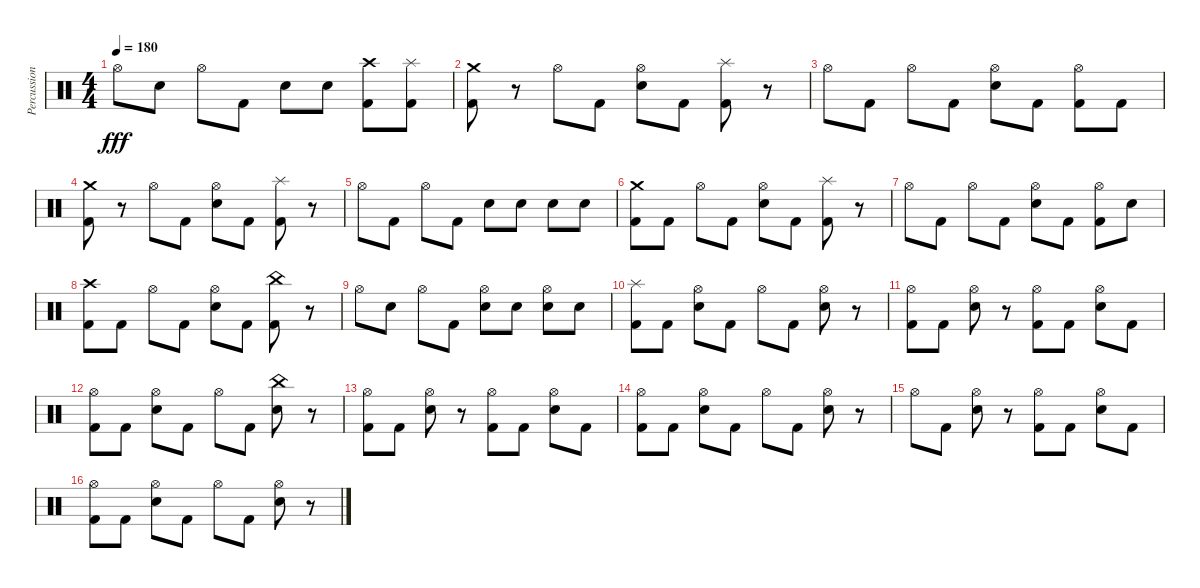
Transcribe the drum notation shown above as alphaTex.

\track ("Percussion" "Percussion") {instrument percussion}
\staff {score}
\articulation defaults
\ts (4 4)
\tempo 180
\clef neutral
\ks c "Hi-Hat (open)".8{dy fff} "Snare (hit) 2".8 "Hi-Hat (open)".8 "Kick (hit) 2".8 "Snare (hit) 2".8 "Snare (hit) 2".8
("Kick (hit) 2" "Crash high (hit)").8 ("Kick (hit) 2" "Splash (hit)").8 |
("Kick (hit) 2" "Crash medium (hit)").8 r.8 "Hi-Hat (open)".8 "Kick (hit) 2".8 ("Hi-Hat (open)" "Snare (hit) 2").8 "Kick (hit) 2".8 ("Kick (hit) 2" "Splash (hit)").8 r.8 |
"Hi-Hat (open)".8 "Kick (hit) 2".8 "Hi-Hat (open)".8 "Kick (hit) 2".8 ("Hi-Hat (open)" "Snare (hit) 2").8 "Kick (hit) 2".8 ("Hi-Hat (open)" "Kick (hit) 2").8 "Kick (hit) 2".8 |
("Kick (hit) 2" "Crash medium (hit)").8 r.8 "Hi-Hat (open)".8 "Kick (hit) 2".8 ("Hi-Hat (open)" "Snare (hit) 2").8 "Kick (hit) 2".8 ("Kick (hit) 2" "Splash (hit)").8 r.8 |
"Hi-Hat (open)".8 "Kick (hit) 2".8 "Hi-Hat (open)".8 "Kick (hit) 2".8 "Snare (hit) 2".8 "Snare (hit) 2".8 "Snare (hit) 2".8 "Snare (hit) 2".8 |
("Kick (hit) 2" "Crash medium (hit)").8 "Kick (hit) 2".8 "Hi-Hat (open)".8 "Kick (hit) 2".8 ("Hi-Hat (open)" "Snare (hit) 2").8 "Kick (hit) 2".8 ("Kick (hit) 2" "Splash (hit)").8 r.8 |
"Hi-Hat (open)".8 "Kick (hit) 2".8 "Hi-Hat (open)".8 "Kick (hit) 2".8 ("Hi-Hat (open)" "Snare (hit) 2").8 "Kick (hit) 2".8 ("Hi-Hat (open)" "Kick (hit) 2").8 "Snare (hit) 2".8 |
("Kick (hit) 2" "Crash high (hit)").8 "Kick (hit) 2".8 "Hi-Hat (open)".8 "Kick (hit) 2".8 ("Hi-Hat (open)" "Snare (hit) 2").8 "Kick (hit) 2".8 ("Kick (hit) 2" "China (hit)").8 r.8 |
"Hi-Hat (open)".8 "Snare (hit) 2".8 "Hi-Hat (open)".8 "Kick (hit) 2".8 ("Hi-Hat (open)" "Snare (hit) 2").8 "Snare (hit) 2".8 ("Hi-Hat (open)" "Snare (hit) 2").8 "Snare (hit) 2".8 |
("Kick (hit) 2" "Splash (hit)").8 "Kick (hit) 2".8 ("Hi-Hat (open)" "Snare (hit) 2").8 "Kick (hit) 2".8 "Hi-Hat (open)".8 "Kick (hit) 2".8 ("Hi-Hat (open)" "Snare (hit) 2").8 r.8 |
("Hi-Hat (open)" "Kick (hit) 2").8 "Kick (hit) 2".8 ("Hi-Hat (open)" "Snare (hit) 2").8 r.8 ("Hi-Hat (open)" "Kick (hit) 2").8 "Kick (hit) 2".8 ("Hi-Hat (open)" "Snare (hit) 2").8 "Kick (hit) 2".8 |
("Hi-Hat (open)" "Kick (hit) 2").8 "Kick (hit) 2".8 ("Hi-Hat (open)" "Snare (hit) 2").8 "Kick (hit) 2".8 "Hi-Hat (open)".8 "Kick (hit) 2".8 ("Snare (hit) 2" "China (hit)").8 r.8 |
("Hi-Hat (open)" "Kick (hit) 2").8 "Kick (hit) 2".8 ("Hi-Hat (open)" "Snare (hit) 2").8 r.8 ("Hi-Hat (open)" "Kick (hit) 2").8 "Kick (hit) 2".8 ("Hi-Hat (open)" "Snare (hit) 2").8 "Kick (hit) 2".8 |
("Hi-Hat (open)" "Kick (hit) 2").8 "Kick (hit) 2".8 ("Hi-Hat (open)" "Snare (hit) 2").8 "Kick (hit) 2".8 "Hi-Hat (open)".8 "Kick (hit) 2".8 ("Hi-Hat (open)" "Snare (hit) 2").8 r.8 |
"Hi-Hat (open)".8 "Kick (hit) 2".8 ("Hi-Hat (open)" "Snare (hit) 2").8 r.8 ("Hi-Hat (open)" "Kick (hit) 2").8 "Kick (hit) 2".8 ("Hi-Hat (open)" "Snare (hit) 2").8 "Kick (hit) 2".8 |
("Hi-Hat (open)" "Kick (hit) 2").8 "Kick (hit) 2".8 ("Hi-Hat (open)" "Snare (hit) 2").8 "Kick (hit) 2".8 "Hi-Hat (open)".8 "Kick (hit) 2".8 ("Hi-Hat (open)" "Snare (hit) 2").8 r.8
